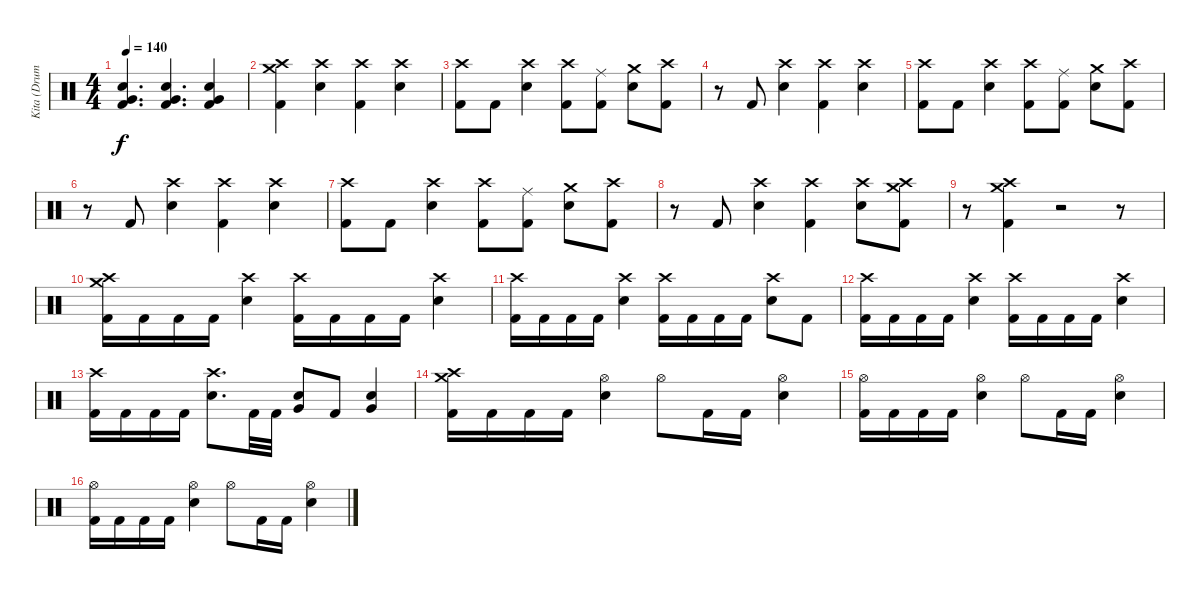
\track ("Kita (Drums)" "Kita (Drum") {instrument percussion}
\staff {score}
\articulation defaults
\ts (4 4)
\tempo 140
\clef neutral
\ks c
("Very Low Tom (hit)" "Electric Snare (hit)" "Kick (hit) 2").4{d dy f} ("Very Low Tom (hit)" "Electric Snare (hit)" "Kick (hit) 2").4{d} ("Very Low Tom (hit)" "Electric Snare (hit)" "Kick (hit) 2").4 |
("Crash medium (hit)" "Crash high (hit)" "Kick (hit) 2").4 ("Crash high (hit)" "Electric Snare (hit)").4 ("Crash high (hit)" "Kick (hit) 2").4 ("Crash high (hit)" "Electric Snare (hit)").4 |
("Crash high (hit)" "Kick (hit) 2").8 "Kick (hit) 2".8 ("Crash high (hit)" "Electric Snare (hit)").4 ("Crash high (hit)" "Kick (hit) 2").8 ("Ride (middle)" "Kick (hit) 2").8 ("Crash medium (hit)" "Electric Snare (hit)").8 ("Crash high (hit)" "Kick (hit) 2").8 |
r.8 "Kick (hit) 2".8 ("Crash high (hit)" "Electric Snare (hit)").4 ("Crash high (hit)" "Kick (hit) 2").4 ("Crash high (hit)" "Electric Snare (hit)").4 |
("Crash high (hit)" "Kick (hit) 2").8 "Kick (hit) 2".8 ("Crash high (hit)" "Electric Snare (hit)").4 ("Crash high (hit)" "Kick (hit) 2").8 ("Ride (middle)" "Kick (hit) 2").8 ("Crash medium (hit)" "Electric Snare (hit)").8 ("Crash high (hit)" "Kick (hit) 2").8 |
r.8 "Kick (hit) 2".8 ("Crash high (hit)" "Electric Snare (hit)").4 ("Crash high (hit)" "Kick (hit) 2").4 ("Crash high (hit)" "Electric Snare (hit)").4 |
("Crash high (hit)" "Kick (hit) 2").8 "Kick (hit) 2".8 ("Crash high (hit)" "Electric Snare (hit)").4 ("Crash high (hit)" "Kick (hit) 2").8 ("Ride (middle)" "Kick (hit) 2").8 ("Crash medium (hit)" "Electric Snare (hit)").8 ("Crash high (hit)" "Kick (hit) 2").8 |
r.8 "Kick (hit) 2".8 ("Crash high (hit)" "Electric Snare (hit)").4 ("Crash high (hit)" "Kick (hit) 2").4 ("Crash high (hit)" "Electric Snare (hit)").8 ("Crash medium (hit)" "Crash high (hit)" "Kick (hit) 2").8 |
r.8 ("Crash medium (hit)" "Crash high (hit)" "Kick (hit) 2").4 r.2 r.8 |
("Crash medium (hit)" "Crash high (hit)" "Kick (hit) 2").16 "Kick (hit) 2".16 "Kick (hit) 2".16 "Kick (hit) 2".16 ("Crash high (hit)" "Electric Snare (hit)").4 ("Crash high (hit)" "Kick (hit) 2").16 "Kick (hit) 2".16 "Kick (hit) 2".16 "Kick (hit) 2".16 ("Crash high (hit)" "Electric Snare (hit)").4 |
("Crash high (hit)" "Kick (hit) 2").16 "Kick (hit) 2".16 "Kick (hit) 2".16 "Kick (hit) 2".16 ("Crash high (hit)" "Electric Snare (hit)").4 ("Crash high (hit)" "Kick (hit) 2").16 "Kick (hit) 2".16 "Kick (hit) 2".16 "Kick (hit) 2".16 ("Crash high (hit)" "Electric Snare (hit)").8 "Kick (hit) 2".8 |
("Crash high (hit)" "Kick (hit) 2").16 "Kick (hit) 2".16 "Kick (hit) 2".16 "Kick (hit) 2".16 ("Crash high (hit)" "Electric Snare (hit)").4 ("Crash high (hit)" "Kick (hit) 2").16 "Kick (hit) 2".16 "Kick (hit) 2".16 "Kick (hit) 2".16 ("Crash high (hit)" "Electric Snare (hit)").4 |
("Crash high (hit)" "Kick (hit) 2").16 "Kick (hit) 2".16 "Kick (hit) 2".16 "Kick (hit) 2".16 ("Crash high (hit)" "Electric Snare (hit)").8{d} "Kick (hit) 2".32 "Kick (hit) 2".32 ("Very Low Tom (hit)" "Electric Snare (hit)").8 "Kick (hit) 2".8 ("Very Low Tom (hit)" "Electric Snare (hit)").4 |
("Crash medium (hit)" "Crash high (hit)" "Kick (hit) 2").16 "Kick (hit) 2".16 "Kick (hit) 2".16 "Kick (hit) 2".16 ("Hi-Hat (open)" "Electric Snare (hit)").4 "Hi-Hat (open)".8 "Kick (hit) 2".16 "Kick (hit) 2".16 ("Hi-Hat (open)" "Electric Snare (hit)").4 |
("Hi-Hat (open)" "Kick (hit) 2").16 "Kick (hit) 2".16 "Kick (hit) 2".16 "Kick (hit) 2".16 ("Hi-Hat (open)" "Electric Snare (hit)").4 "Hi-Hat (open)".8 "Kick (hit) 2".16 "Kick (hit) 2".16 ("Hi-Hat (open)" "Electric Snare (hit)").4 |
("Hi-Hat (open)" "Kick (hit) 2").16 "Kick (hit) 2".16 "Kick (hit) 2".16 "Kick (hit) 2".16 ("Hi-Hat (open)" "Electric Snare (hit)").4 "Hi-Hat (open)".8 "Kick (hit) 2".16 "Kick (hit) 2".16 ("Hi-Hat (open)" "Electric Snare (hit)").4
